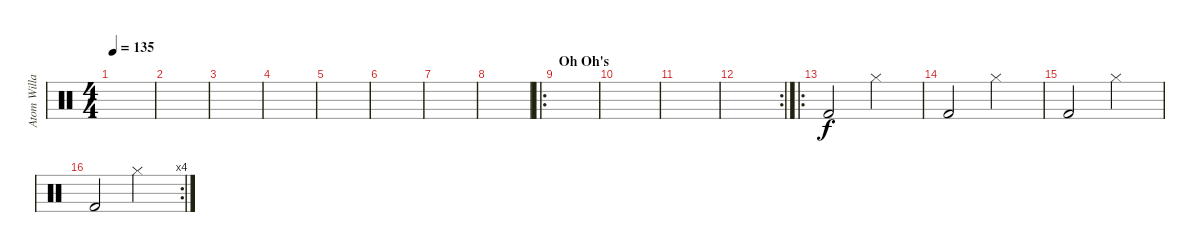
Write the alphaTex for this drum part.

\track ("Atom Willard (Drums)" "Atom Willa") {instrument percussion}
\staff {score}
\articulation defaults
\ts (4 4)
\tempo 135
\clef neutral
\ks c
|
|
|
|
|
|
|
|
\ro
\section ("" "Oh Oh's")
|
|
|
\rc 2
|
\ro "Kick (hit) 2".2 "Hi-Hat (closed)".2
|
"Kick (hit) 2".2 "Hi-Hat (closed)".2 |
"Kick (hit) 2".2 "Hi-Hat (closed)".2 |
\rc 4 "Kick (hit) 2".2 "Hi-Hat (closed)".2
